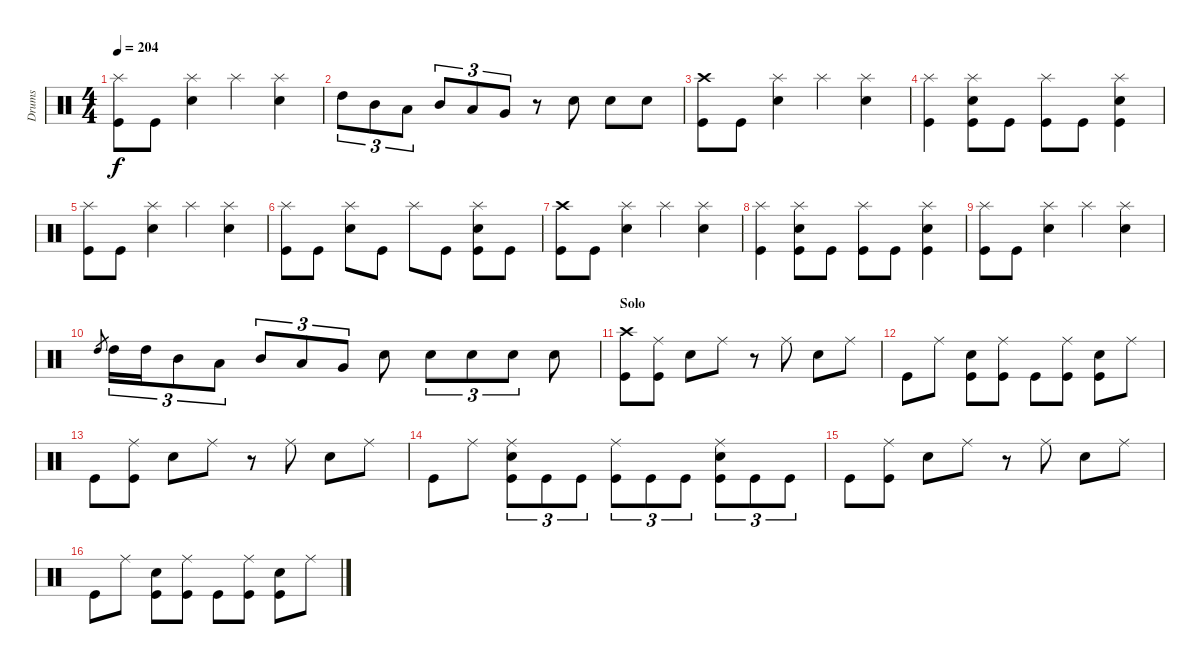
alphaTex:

\track ("Drums" "Drums") {instrument percussion}
\staff {score}
\articulation defaults
\ts (4 4)
\tempo 204
\clef neutral
\ks c
("Splash (hit)" "Kick (hit)").8{dy f} "Kick (hit)".8 ("Splash (hit)" "Electric Snare (hit)").4 "Splash (hit)".4 ("Splash (hit)" "Electric Snare (hit)").4 |
"High Tom (hit)".8{tu (3 2)} "Mid Tom (hit)".8{tu (3 2)} "Low Tom (hit)".8{tu (3 2)} "Mid Tom (hit)".8{tu (3 2)} "Low Tom (hit)".8{tu (3 2)} "Very Low Tom (hit)".8{tu (3 2)} r.8 "Electric Snare (hit)".8 "Electric Snare (hit)".8 "Electric Snare (hit)".8 |
("Crash high (hit)" "Kick (hit)").8 "Kick (hit)".8 ("Splash (hit)" "Electric Snare (hit)").4 "Splash (hit)".4 ("Splash (hit)" "Electric Snare (hit)").4 |
("Splash (hit)" "Kick (hit)").4 ("Splash (hit)" "Electric Snare (hit)" "Kick (hit)").8 "Kick (hit)".8 ("Splash (hit)" "Kick (hit)").8 "Kick (hit)".8 ("Splash (hit)" "Electric Snare (hit)" "Kick (hit)").4 |
("Splash (hit)" "Kick (hit)").8 "Kick (hit)".8 ("Splash (hit)" "Electric Snare (hit)").4 "Splash (hit)".4 ("Splash (hit)" "Electric Snare (hit)").4 |
("Splash (hit)" "Kick (hit)").8 "Kick (hit)".8 ("Splash (hit)" "Electric Snare (hit)").8 "Kick (hit)".8 "Splash (hit)".8 "Kick (hit)".8 ("Splash (hit)" "Electric Snare (hit)" "Kick (hit)").8 "Kick (hit)".8 |
("Crash high (hit)" "Kick (hit)").8 "Kick (hit)".8 ("Splash (hit)" "Electric Snare (hit)").4 "Splash (hit)".4 ("Splash (hit)" "Electric Snare (hit)").4 |
("Splash (hit)" "Kick (hit)").4 ("Splash (hit)" "Electric Snare (hit)" "Kick (hit)").8 "Kick (hit)".8 ("Splash (hit)" "Kick (hit)").8 "Kick (hit)".8 ("Splash (hit)" "Electric Snare (hit)" "Kick (hit)").4 |
("Splash (hit)" "Kick (hit)").8 "Kick (hit)".8 ("Splash (hit)" "Electric Snare (hit)").4 "Splash (hit)".4 ("Splash (hit)" "Electric Snare (hit)").4 |
"High Tom (hit)".8{gr} "High Tom (hit)".16{tu (3 2)} "High Tom (hit)".16{tu (3 2)} "Mid Tom (hit)".8{tu (3 2)} "Low Tom (hit)".8{tu (3 2)} "Mid Tom (hit)".8{tu (3 2)} "Low Tom (hit)".8{tu (3 2)} "Very Low Tom (hit)".8{tu (3 2)} "Electric Snare (hit)".8 "Electric Snare (hit)".8{tu (3 2)} "Electric Snare (hit)".8{tu (3 2)} "Electric Snare (hit)".8{tu (3 2)} "Electric Snare (hit)".8 |
\section ("" "Solo")
("Crash high (hit)" "Kick (hit)").8 ("Ride (middle)" "Kick (hit)").8 "Electric Snare (hit)".8 "Ride (middle)".8 r.8 "Ride (middle)".8 "Electric Snare (hit)".8 "Ride (middle)".8 |
"Kick (hit)".8 "Ride (middle)".8 ("Electric Snare (hit)" "Kick (hit)").8 ("Ride (middle)" "Kick (hit)").8 "Kick (hit)".8 ("Ride (middle)" "Kick (hit)").8 ("Electric Snare (hit)" "Kick (hit)").8 "Ride (middle)".8 |
"Kick (hit)".8 ("Ride (middle)" "Kick (hit)").8 "Electric Snare (hit)".8 "Ride (middle)".8 r.8 "Ride (middle)".8 "Electric Snare (hit)".8 "Ride (middle)".8 |
"Kick (hit)".8 "Ride (middle)".8 ("Ride (middle)" "Electric Snare (hit)" "Kick (hit)").8{tu (3 2)} "Kick (hit)".8{tu (3 2)} "Kick (hit)".8{tu (3 2)} ("Ride (middle)" "Kick (hit)").8{tu (3 2)} "Kick (hit)".8{tu (3 2)} "Kick (hit)".8{tu (3 2)} ("Ride (middle)" "Electric Snare (hit)" "Kick (hit)").8{tu (3 2)} "Kick (hit)".8{tu (3 2)} "Kick (hit)".8{tu (3 2)} |
"Kick (hit)".8 ("Ride (middle)" "Kick (hit)").8 "Electric Snare (hit)".8 "Ride (middle)".8 r.8 "Ride (middle)".8 "Electric Snare (hit)".8 "Ride (middle)".8 |
"Kick (hit)".8 "Ride (middle)".8 ("Electric Snare (hit)" "Kick (hit)").8 ("Ride (middle)" "Kick (hit)").8 "Kick (hit)".8 ("Ride (middle)" "Kick (hit)").8 ("Electric Snare (hit)" "Kick (hit)").8 "Ride (middle)".8
